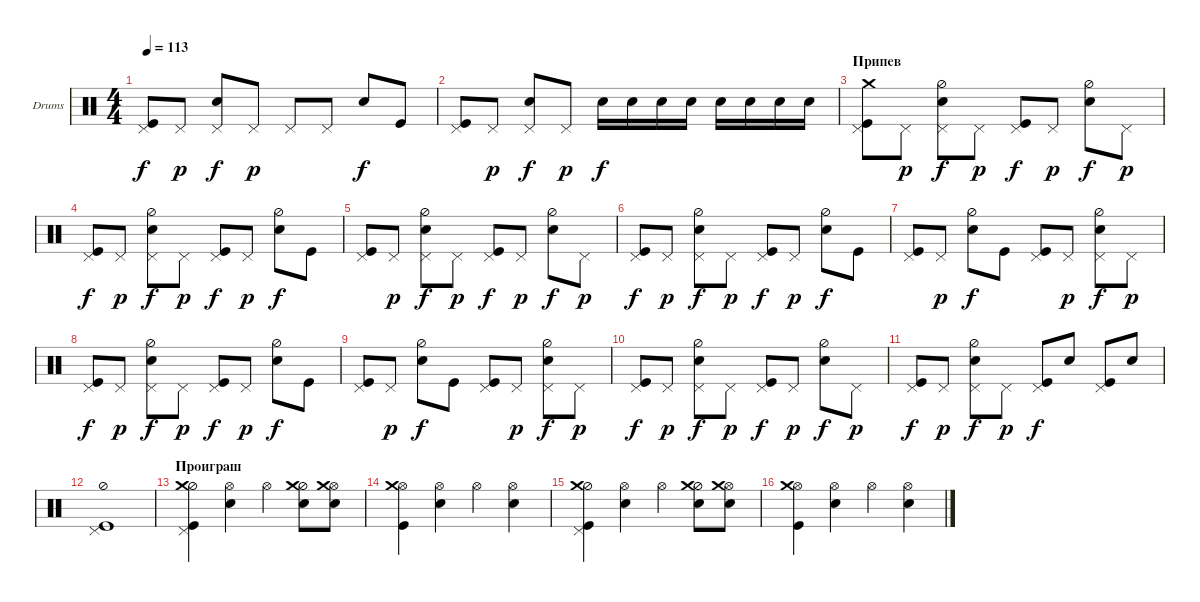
\defaultSystemsLayout 4
\bracketExtendMode groupsimilarinstruments
\firstSystemTrackNameOrientation horizontal
\otherSystemsTrackNameOrientation horizontal
\track ("Е. Кулаков" "Drums") {instrument percussion}
\staff {score}
\articulation defaults
\ts (4 4)
\tempo 113
\clef neutral
\ks c
("Kick (hit)" "Pedal Hi-Hat (hit)").8{dy f} "Pedal Hi-Hat (hit)".8{dy p} ("Snare (hit) 2" "Pedal Hi-Hat (hit)").8{dy f} "Pedal Hi-Hat (hit)".8{dy p} "Pedal Hi-Hat (hit)".8 "Pedal Hi-Hat (hit)".8 "Snare (hit) 2".8{dy f} "Kick (hit)".8 |
("Kick (hit)" "Pedal Hi-Hat (hit)").8 "Pedal Hi-Hat (hit)".8{dy p} ("Snare (hit) 2" "Pedal Hi-Hat (hit)").8{dy f} "Pedal Hi-Hat (hit)".8{dy p} "Snare (hit) 2".16{dy f} "Snare (hit) 2".16 "Snare (hit) 2".16 "Snare (hit) 2".16 "Snare (hit) 2".16 "Snare (hit) 2".16 "Snare (hit) 2".16 "Snare (hit) 2".16 |
\section ("" "Припев")
("Kick (hit)" "Pedal Hi-Hat (hit)" "Crash medium (hit)").8 "Pedal Hi-Hat (hit)".8{dy p} ("Snare (hit) 2" "Pedal Hi-Hat (hit)" "Hi-Hat (half)").8{dy f} "Pedal Hi-Hat (hit)".8{dy p} ("Pedal Hi-Hat (hit)" "Kick (hit)").8{dy f} "Pedal Hi-Hat (hit)".8{dy p} ("Snare (hit) 2" "Hi-Hat (half)").8{dy f} "Pedal Hi-Hat (hit)".8{dy p} |
("Kick (hit)" "Pedal Hi-Hat (hit)").8{dy f} "Pedal Hi-Hat (hit)".8{dy p} ("Snare (hit) 2" "Pedal Hi-Hat (hit)" "Hi-Hat (half)").8{dy f} "Pedal Hi-Hat (hit)".8{dy p} ("Pedal Hi-Hat (hit)" "Kick (hit)").8{dy f} "Pedal Hi-Hat (hit)".8{dy p} ("Snare (hit) 2" "Hi-Hat (half)").8{dy f} "Kick (hit)".8 |
("Kick (hit)" "Pedal Hi-Hat (hit)").8 "Pedal Hi-Hat (hit)".8{dy p} ("Snare (hit) 2" "Pedal Hi-Hat (hit)" "Hi-Hat (half)").8{dy f} "Pedal Hi-Hat (hit)".8{dy p} ("Pedal Hi-Hat (hit)" "Kick (hit)").8{dy f} "Pedal Hi-Hat (hit)".8{dy p} ("Snare (hit) 2" "Hi-Hat (half)").8{dy f} "Pedal Hi-Hat (hit)".8{dy p} |
("Kick (hit)" "Pedal Hi-Hat (hit)").8{dy f} "Pedal Hi-Hat (hit)".8{dy p} ("Snare (hit) 2" "Pedal Hi-Hat (hit)" "Hi-Hat (half)").8{dy f} "Pedal Hi-Hat (hit)".8{dy p} ("Pedal Hi-Hat (hit)" "Kick (hit)").8{dy f} "Pedal Hi-Hat (hit)".8{dy p} ("Snare (hit) 2" "Hi-Hat (half)").8{dy f} "Kick (hit)".8 |
("Pedal Hi-Hat (hit)" "Kick (hit)").8 "Pedal Hi-Hat (hit)".8{dy p} ("Snare (hit) 2" "Hi-Hat (half)").8{dy f} "Kick (hit)".8 ("Pedal Hi-Hat (hit)" "Kick (hit)").8 "Pedal Hi-Hat (hit)".8{dy p} ("Pedal Hi-Hat (hit)" "Snare (hit) 2" "Hi-Hat (half)").8{dy f} "Pedal Hi-Hat (hit)".8{dy p} |
("Kick (hit)" "Pedal Hi-Hat (hit)").8{dy f} "Pedal Hi-Hat (hit)".8{dy p} ("Snare (hit) 2" "Pedal Hi-Hat (hit)" "Hi-Hat (half)").8{dy f} "Pedal Hi-Hat (hit)".8{dy p} ("Pedal Hi-Hat (hit)" "Kick (hit)").8{dy f} "Pedal Hi-Hat (hit)".8{dy p} ("Snare (hit) 2" "Hi-Hat (half)").8{dy f} "Kick (hit)".8 |
("Pedal Hi-Hat (hit)" "Kick (hit)").8 "Pedal Hi-Hat (hit)".8{dy p} ("Snare (hit) 2" "Hi-Hat (half)").8{dy f} "Kick (hit)".8 ("Pedal Hi-Hat (hit)" "Kick (hit)").8 "Pedal Hi-Hat (hit)".8{dy p} ("Pedal Hi-Hat (hit)" "Snare (hit) 2" "Hi-Hat (half)").8{dy f} "Pedal Hi-Hat (hit)".8{dy p} |
("Kick (hit)" "Pedal Hi-Hat (hit)").8{dy f} "Pedal Hi-Hat (hit)".8{dy p} ("Snare (hit) 2" "Pedal Hi-Hat (hit)" "Hi-Hat (half)").8{dy f} "Pedal Hi-Hat (hit)".8{dy p} ("Pedal Hi-Hat (hit)" "Kick (hit)").8{dy f} "Pedal Hi-Hat (hit)".8{dy p} ("Snare (hit) 2" "Hi-Hat (half)").8{dy f} "Pedal Hi-Hat (hit)".8{dy p} |
("Kick (hit)" "Pedal Hi-Hat (hit)").8{dy f} "Pedal Hi-Hat (hit)".8{dy p} ("Snare (hit) 2" "Pedal Hi-Hat (hit)" "Hi-Hat (half)").8{dy f} "Pedal Hi-Hat (hit)".8{dy p} ("Pedal Hi-Hat (hit)" "Kick (hit)").8{dy f} "Snare (hit) 2".8 ("Pedal Hi-Hat (hit)" "Kick (hit)").8 "Snare (hit) 2".8 |
("Pedal Hi-Hat (hit)" "Kick (hit)" "Hi-Hat (half)").1 |
\section ("" "Проиграш")
("Pedal Hi-Hat (hit)" "Kick (hit)" "Hi-Hat (half)" "Crash medium (hit)").4 ("Snare (hit) 2" "Hi-Hat (open)").4 "Hi-Hat (open)".4 ("Snare (hit) 2" "Hi-Hat (half)" "Crash medium (hit)").8 ("Hi-Hat (open)" "Snare (hit) 2" "Crash medium (hit)").8 |
("Hi-Hat (open)" "Kick (hit)" "Crash medium (hit)").4 ("Hi-Hat (open)" "Snare (hit) 2").4 "Hi-Hat (open)".4 ("Snare (hit) 2" "Hi-Hat (open)").4 |
("Pedal Hi-Hat (hit)" "Kick (hit)" "Hi-Hat (half)" "Crash medium (hit)").4 ("Snare (hit) 2" "Hi-Hat (open)").4 "Hi-Hat (open)".4 ("Snare (hit) 2" "Hi-Hat (half)" "Crash medium (hit)").8 ("Hi-Hat (open)" "Snare (hit) 2" "Crash medium (hit)").8 |
("Hi-Hat (open)" "Kick (hit)" "Crash medium (hit)").4 ("Hi-Hat (open)" "Snare (hit) 2").4 "Hi-Hat (open)".4 ("Snare (hit) 2" "Hi-Hat (open)").4
